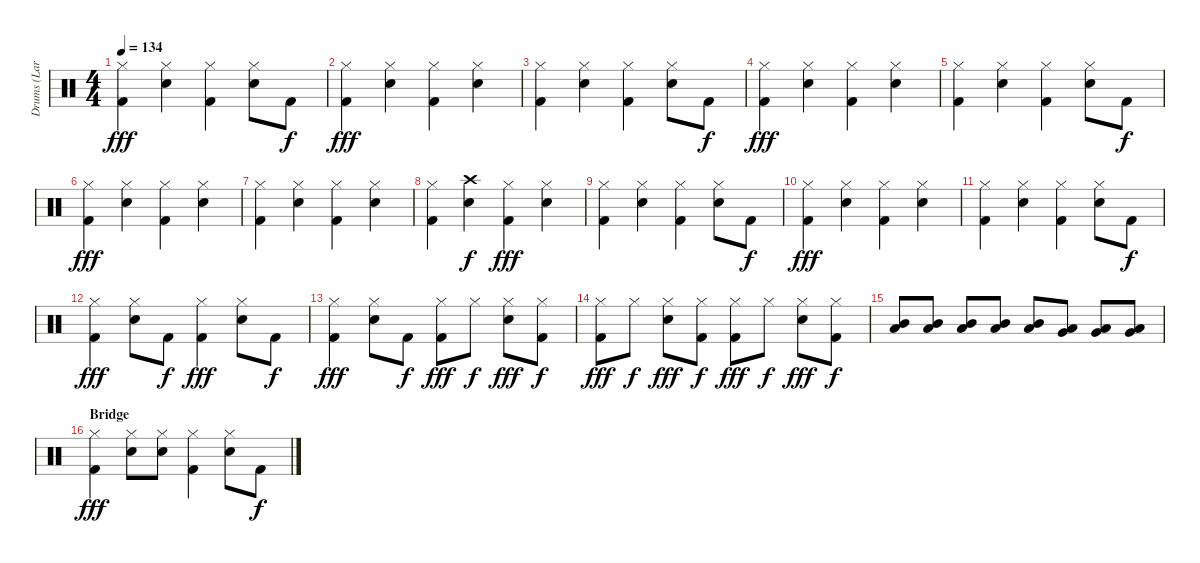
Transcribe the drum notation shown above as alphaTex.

\track ("Drums (Lars)" "Drums (Lar") {instrument percussion}
\staff {score}
\articulation defaults
\ts (4 4)
\tempo 134
\clef neutral
\ks c
("Hi-Hat (closed)" "Kick (hit) 2").4{dy fff} ("Hi-Hat (closed)" "Snare (hit) 2").4 ("Hi-Hat (closed)" "Kick (hit) 2").4 ("Hi-Hat (closed)" "Snare (hit) 2").8 "Kick (hit) 2".8{dy f} |
("Hi-Hat (closed)" "Kick (hit) 2").4{dy fff} ("Hi-Hat (closed)" "Snare (hit) 2").4 ("Hi-Hat (closed)" "Kick (hit) 2").4 ("Hi-Hat (closed)" "Snare (hit) 2").4 |
("Hi-Hat (closed)" "Kick (hit) 2").4 ("Hi-Hat (closed)" "Snare (hit) 2").4 ("Hi-Hat (closed)" "Kick (hit) 2").4 ("Hi-Hat (closed)" "Snare (hit) 2").8 "Kick (hit) 2".8{dy f} |
("Hi-Hat (closed)" "Kick (hit) 2").4{dy fff} ("Hi-Hat (closed)" "Snare (hit) 2").4 ("Hi-Hat (closed)" "Kick (hit) 2").4 ("Hi-Hat (closed)" "Snare (hit) 2").4 |
("Hi-Hat (closed)" "Kick (hit) 2").4 ("Hi-Hat (closed)" "Snare (hit) 2").4 ("Hi-Hat (closed)" "Kick (hit) 2").4 ("Hi-Hat (closed)" "Snare (hit) 2").8 "Kick (hit) 2".8{dy f} |
("Hi-Hat (closed)" "Kick (hit) 2").4{dy fff} ("Hi-Hat (closed)" "Snare (hit) 2").4 ("Hi-Hat (closed)" "Kick (hit) 2").4 ("Hi-Hat (closed)" "Snare (hit) 2").4 |
("Hi-Hat (closed)" "Kick (hit) 2").4 ("Hi-Hat (closed)" "Snare (hit) 2").4 ("Hi-Hat (closed)" "Kick (hit) 2").4 ("Hi-Hat (closed)" "Snare (hit) 2").4 |
("Hi-Hat (closed)" "Kick (hit) 2").4 ("Crash high (hit)" "Snare (hit) 2").4{dy f} ("Hi-Hat (closed)" "Kick (hit) 2").4{dy fff} ("Hi-Hat (closed)" "Snare (hit) 2").4 |
("Hi-Hat (closed)" "Kick (hit) 2").4 ("Hi-Hat (closed)" "Snare (hit) 2").4 ("Hi-Hat (closed)" "Kick (hit) 2").4 ("Hi-Hat (closed)" "Snare (hit) 2").8 "Kick (hit) 2".8{dy f} |
("Hi-Hat (closed)" "Kick (hit) 2").4{dy fff} ("Hi-Hat (closed)" "Snare (hit) 2").4 ("Hi-Hat (closed)" "Kick (hit) 2").4 ("Hi-Hat (closed)" "Snare (hit) 2").4 |
("Hi-Hat (closed)" "Kick (hit) 2").4 ("Hi-Hat (closed)" "Snare (hit) 2").4 ("Hi-Hat (closed)" "Kick (hit) 2").4 ("Hi-Hat (closed)" "Snare (hit) 2").8 "Kick (hit) 2".8{dy f} |
("Hi-Hat (closed)" "Kick (hit) 2").4{dy fff} ("Hi-Hat (closed)" "Snare (hit) 2").8 "Kick (hit) 2".8{dy f} ("Hi-Hat (closed)" "Kick (hit) 2").4{dy fff} ("Hi-Hat (closed)" "Snare (hit) 2").8 "Kick (hit) 2".8{dy f} |
("Hi-Hat (closed)" "Kick (hit) 2").4{dy fff} ("Hi-Hat (closed)" "Snare (hit) 2").8 "Kick (hit) 2".8{dy f} ("Hi-Hat (closed)" "Kick (hit) 2").8{dy fff} "Hi-Hat (closed)".8{dy f} ("Hi-Hat (closed)" "Snare (hit) 2").8{dy fff} ("Hi-Hat (closed)" "Kick (hit) 2").8{dy f} |
("Hi-Hat (closed)" "Kick (hit) 2").8{dy fff} "Hi-Hat (closed)".8{dy f} ("Hi-Hat (closed)" "Snare (hit) 2").8{dy fff} ("Hi-Hat (closed)" "Kick (hit) 2").8{dy f} ("Hi-Hat (closed)" "Kick (hit) 2").8{dy fff} "Hi-Hat (closed)".8{dy f} ("Hi-Hat (closed)" "Snare (hit) 2").8{dy fff} ("Hi-Hat (closed)" "Kick (hit) 2").8{dy f} |
("Mid Tom (hit)" "Low Tom (hit)").8 ("Mid Tom (hit)" "Low Tom (hit)").8 ("Mid Tom (hit)" "Low Tom (hit)").8 ("Mid Tom (hit)" "Low Tom (hit)").8 ("Mid Tom (hit)" "Low Tom (hit)").8 ("Low Tom (hit)" "Very Low Tom (hit)").8 ("Low Tom (hit)" "Very Low Tom (hit)").8 ("Low Tom (hit)" "Very Low Tom (hit)").8 |
\section ("" "Bridge")
("Hi-Hat (closed)" "Kick (hit) 2").4{dy fff} ("Hi-Hat (closed)" "Snare (hit) 2").8 ("Hi-Hat (closed)" "Snare (hit) 2").8 ("Hi-Hat (closed)" "Kick (hit) 2").4 ("Hi-Hat (closed)" "Snare (hit) 2").8 "Kick (hit) 2".8{dy f}
